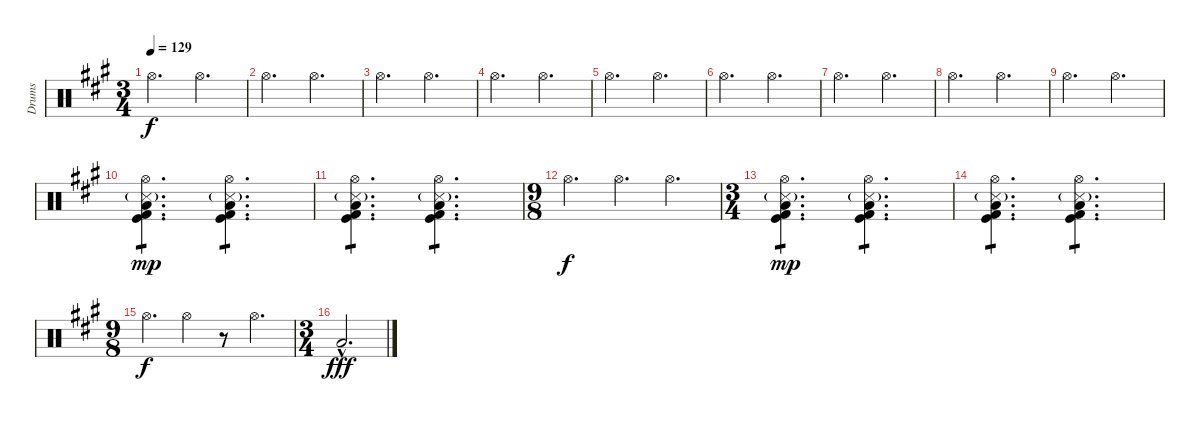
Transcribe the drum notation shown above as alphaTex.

\track ("Drums" "Drums") {instrument percussion}
\staff {score}
\articulation defaults
\ts (3 4)
\tempo 129
\clef neutral
\ks f#minor "Hi-Hat (open)".4{d dy f} "Hi-Hat (open)".4{d}
|
"Hi-Hat (open)".4{d} "Hi-Hat (open)".4{d} |
"Hi-Hat (open)".4{d} "Hi-Hat (open)".4{d} |
"Hi-Hat (open)".4{d} "Hi-Hat (open)".4{d} |
"Hi-Hat (open)".4{d volume 14} "Hi-Hat (open)".4{d} |
"Hi-Hat (open)".4{d} "Hi-Hat (open)".4{d} |
"Hi-Hat (open)".4{d} "Hi-Hat (open)".4{d} |
"Hi-Hat (open)".4{d} "Hi-Hat (open)".4{d} |
"Hi-Hat (open)".4{d} "Hi-Hat (open)".4{d} |
("Low Floor Tom (hit)" "Kick (hit) 2" "Kick (hit)" "Snare (side stick) 3"{g} "Hi-Hat (open)").4{d tp 1 dy mp volume 16} ("Low Floor Tom (hit)" "Kick (hit) 2" "Kick (hit)" "Snare (side stick) 3"{g} "Hi-Hat (open)").4{d tp 1} |
("Low Floor Tom (hit)" "Kick (hit) 2" "Kick (hit)" "Snare (side stick) 3"{g} "Hi-Hat (open)").4{d tp 1} ("Low Floor Tom (hit)" "Kick (hit) 2" "Kick (hit)" "Snare (side stick) 3"{g} "Hi-Hat (open)").4{d tp 1} |
\ts (9 8)
"Hi-Hat (open)".4{d dy f} "Hi-Hat (open)".4{d} "Hi-Hat (open)".4{d} |
\ts (3 4)
("Low Floor Tom (hit)" "Kick (hit) 2" "Kick (hit)" "Snare (side stick) 3"{g} "Hi-Hat (open)").4{d tp 1 dy mp volume 16} ("Low Floor Tom (hit)" "Kick (hit) 2" "Kick (hit)" "Snare (side stick) 3"{g} "Hi-Hat (open)").4{d tp 1} |
("Low Floor Tom (hit)" "Kick (hit) 2" "Kick (hit)" "Snare (side stick) 3"{g} "Hi-Hat (open)").4{d tp 1} ("Low Floor Tom (hit)" "Kick (hit) 2" "Kick (hit)" "Snare (side stick) 3"{g} "Hi-Hat (open)").4{d tp 1} |
\ts (9 8)
"Hi-Hat (open)".4{d dy f} "Hi-Hat (open)".4 r.8{volume 7} "Hi-Hat (open)".4{d} |
\ts (3 4)
"Low Floor Tom (hit)"{hac}.2{d dy fff volume 14}
